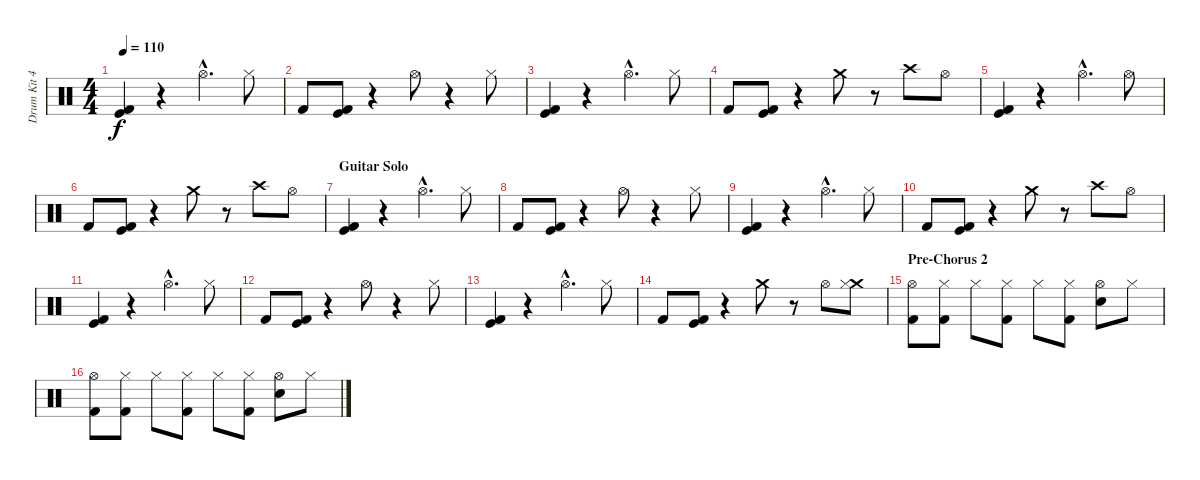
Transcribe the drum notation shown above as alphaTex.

\track ("Drum Kit 42" "Drum Kit 4") {instrument percussion}
\staff {score}
\articulation defaults
\ts (4 4)
\tempo 110
\clef neutral
\ks c
("Kick (hit)" "Kick (hit) 2").4{dy f} r.4 "Hi-Hat (open)"{hac}.4{d} "Hi-Hat (closed)".8 |
"Kick (hit) 2".8 ("Kick (hit)" "Kick (hit) 2").8 r.4 "Hi-Hat (open)".8 r.4 "Hi-Hat (closed)".8 |
("Kick (hit)" "Kick (hit) 2").4 r.4 "Hi-Hat (open)"{hac}.4{d} "Hi-Hat (closed)".8 |
"Kick (hit) 2".8 ("Kick (hit)" "Kick (hit) 2").8 r.4 "Crash medium (hit)".8 r.8 "Crash high (hit)".8 "Hi-Hat (open)".8 |
("Kick (hit)" "Kick (hit) 2").4 r.4 "Hi-Hat (open)"{hac}.4{d} "Hi-Hat (open)".8 |
"Kick (hit) 2".8 ("Kick (hit)" "Kick (hit) 2").8 r.4 "Crash medium (hit)".8 r.8 "Crash high (hit)".8 "Hi-Hat (open)".8 |
\section ("" "Guitar Solo")
("Kick (hit)" "Kick (hit) 2").4 r.4 "Hi-Hat (open)"{hac}.4{d} "Hi-Hat (closed)".8 |
"Kick (hit) 2".8 ("Kick (hit)" "Kick (hit) 2").8 r.4 "Hi-Hat (open)".8 r.4 "Hi-Hat (closed)".8 |
("Kick (hit)" "Kick (hit) 2").4 r.4 "Hi-Hat (open)"{hac}.4{d} "Hi-Hat (closed)".8 |
"Kick (hit) 2".8 ("Kick (hit)" "Kick (hit) 2").8 r.4 "Crash medium (hit)".8 r.8 "Crash high (hit)".8 "Hi-Hat (open)".8 |
("Kick (hit)" "Kick (hit) 2").4 r.4 "Hi-Hat (open)"{hac}.4{d} "Hi-Hat (closed)".8 |
"Kick (hit) 2".8 ("Kick (hit)" "Kick (hit) 2").8 r.4 "Hi-Hat (open)".8 r.4 "Hi-Hat (closed)".8 |
("Kick (hit)" "Kick (hit) 2").4 r.4 "Hi-Hat (open)"{hac}.4{d} "Hi-Hat (closed)".8 |
"Kick (hit) 2".8 ("Kick (hit)" "Kick (hit) 2").8 r.4 "Crash medium (hit)".8 r.8 "Hi-Hat (open)".8 ("Crash medium (hit)" "Hi-Hat (closed)").8 |
\section ("" "Pre-Chorus 2")
("Hi-Hat (open)" "Kick (hit) 2").8 ("Hi-Hat (closed)" "Kick (hit) 2").8 "Hi-Hat (closed)".8 ("Hi-Hat (closed)" "Kick (hit) 2").8 "Hi-Hat (closed)".8 ("Hi-Hat (closed)" "Kick (hit) 2").8 ("Hi-Hat (open)" "Snare (hit) 2").8 "Hi-Hat (closed)".8 |
("Hi-Hat (open)" "Kick (hit) 2").8 ("Hi-Hat (closed)" "Kick (hit) 2").8 "Hi-Hat (closed)".8 ("Hi-Hat (closed)" "Kick (hit) 2").8 "Hi-Hat (closed)".8 ("Hi-Hat (closed)" "Kick (hit) 2").8 ("Hi-Hat (open)" "Snare (hit) 2").8 "Hi-Hat (closed)".8
